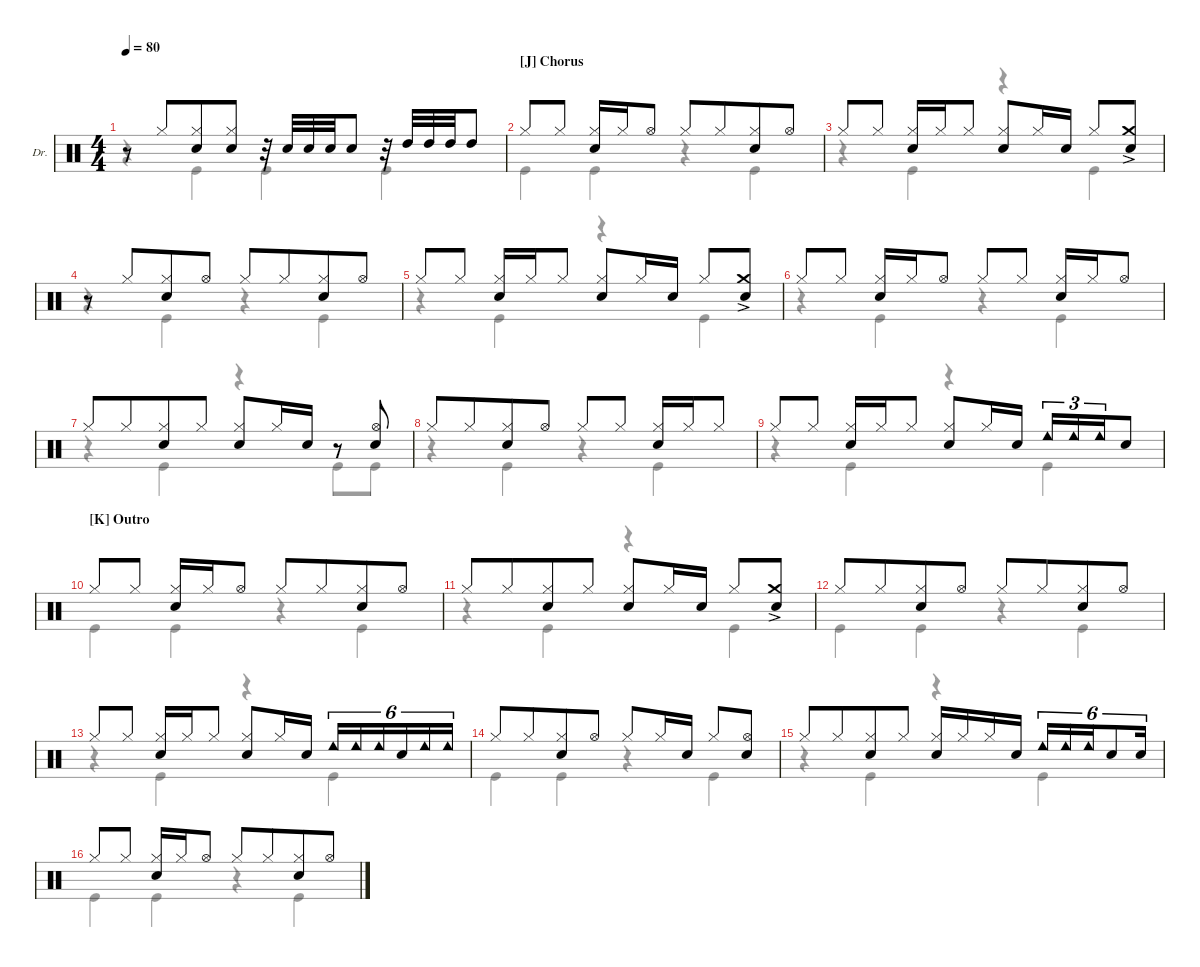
\defaultSystemsLayout 4
\hideDynamics
\bracketExtendMode groupsimilarinstruments
\firstSystemTrackNameOrientation horizontal
\otherSystemsTrackNameOrientation horizontal
\track ("Drums" "Dr.") {multiBarRest instrument percussion}
\staff {score}
\articulation defaults
\voice
\ts (4 4)
\tempo 80
\clef neutral
\ks c
r.8{dy mf} "Hi-Hat (closed)".8{beam merge} ("Hi-Hat (closed)" "Snare (hit) 2").8 ("Hi-Hat (closed)" "Snare (hit) 2").8 r.32 "Snare (hit) 2".32 "Snare (hit) 2".32 "Snare (hit) 2".32 "Snare (hit) 2".8 r.32 "High Tom (hit)".32 "High Tom (hit)".32 "High Tom (hit)".32 "High Tom (hit)".8 |
\section ("J" "Chorus")
"Hi-Hat (closed)".8 "Hi-Hat (closed)".8 ("Hi-Hat (closed)" "Snare (hit) 2").16 "Hi-Hat (closed)".16 "Hi-Hat (open)".8 "Hi-Hat (closed)".8 "Hi-Hat (closed)".8{beam merge} ("Hi-Hat (closed)" "Snare (hit) 2").8 "Hi-Hat (open)".8 |
"Hi-Hat (closed)".8 "Hi-Hat (closed)".8 ("Hi-Hat (closed)" "Snare (hit) 2").16 "Hi-Hat (closed)".16 "Hi-Hat (closed)".8 ("Hi-Hat (closed)" "Snare (hit) 2").8 "Hi-Hat (closed)".16 "Snare (hit) 2".16 "Hi-Hat (closed)".8 ("Crash medium (hit)"{ac} "Snare (hit) 2").8 |
r.8 "Hi-Hat (closed)".8{beam merge} ("Hi-Hat (closed)" "Snare (hit) 2").8 "Hi-Hat (open)".8 "Hi-Hat (closed)".8 "Hi-Hat (closed)".8{beam merge} ("Hi-Hat (closed)" "Snare (hit) 2").8 "Hi-Hat (open)".8 |
"Hi-Hat (closed)".8 "Hi-Hat (closed)".8 ("Hi-Hat (closed)" "Snare (hit) 2").16 "Hi-Hat (closed)".16 "Hi-Hat (closed)".8 ("Hi-Hat (closed)" "Snare (hit) 2").8 "Hi-Hat (closed)".16 "Snare (hit) 2".16 "Hi-Hat (closed)".8 ("Crash medium (hit)"{ac} "Snare (hit) 2").8 |
"Hi-Hat (closed)".8 "Hi-Hat (closed)".8 ("Hi-Hat (closed)" "Snare (hit) 2").16 "Hi-Hat (closed)".16 "Hi-Hat (open)".8 "Hi-Hat (closed)".8 "Hi-Hat (closed)".8 ("Hi-Hat (closed)" "Snare (hit) 2").16 "Hi-Hat (closed)".16 "Hi-Hat (open)".8 |
"Hi-Hat (closed)".8 "Hi-Hat (closed)".8{beam merge} ("Hi-Hat (closed)" "Snare (hit) 2").8 "Hi-Hat (closed)".8 ("Hi-Hat (closed)" "Snare (hit) 2").8 "Hi-Hat (closed)".16 "Snare (hit) 2".16 r.8 ("Hi-Hat (open)" "Snare (hit) 2").8 |
"Hi-Hat (closed)".8 "Hi-Hat (closed)".8{beam merge} ("Hi-Hat (closed)" "Snare (hit) 2").8 "Hi-Hat (open)".8 "Hi-Hat (closed)".8 "Hi-Hat (closed)".8 ("Hi-Hat (closed)" "Snare (hit) 2").16 "Hi-Hat (closed)".16 "Hi-Hat (closed)".8 |
"Hi-Hat (closed)".8 "Hi-Hat (closed)".8 ("Hi-Hat (closed)" "Snare (hit) 2").16 "Hi-Hat (closed)".16 "Hi-Hat (closed)".8 ("Hi-Hat (closed)" "Snare (hit) 2").8 "Hi-Hat (closed)".16 "Snare (hit) 2".16 "Cowbell low (hit)".16{tu (3 2)} "Cowbell low (hit)".16{tu (3 2)} "Cowbell low (hit)".16{tu (3 2) beam merge} "Snare (hit) 2".8 |
\section ("K" "Outro")
"Hi-Hat (closed)".8 "Hi-Hat (closed)".8 ("Hi-Hat (closed)" "Snare (hit) 2").16 "Hi-Hat (closed)".16 "Hi-Hat (open)".8 "Hi-Hat (closed)".8 "Hi-Hat (closed)".8{beam merge} ("Hi-Hat (closed)" "Snare (hit) 2").8 "Hi-Hat (open)".8 |
"Hi-Hat (closed)".8 "Hi-Hat (closed)".8{beam merge} ("Hi-Hat (closed)" "Snare (hit) 2").8 "Hi-Hat (closed)".8 ("Hi-Hat (closed)" "Snare (hit) 2").8 "Hi-Hat (closed)".16 "Snare (hit) 2".16 "Hi-Hat (closed)".8 ("Crash medium (hit)"{ac} "Snare (hit) 2").8 |
"Hi-Hat (closed)".8 "Hi-Hat (closed)".8{beam merge} ("Hi-Hat (closed)" "Snare (hit) 2").8 "Hi-Hat (open)".8 "Hi-Hat (closed)".8 "Hi-Hat (closed)".8{beam merge} ("Hi-Hat (closed)" "Snare (hit) 2").8 "Hi-Hat (open)".8 |
"Hi-Hat (closed)".8 "Hi-Hat (closed)".8 ("Hi-Hat (closed)" "Snare (hit) 2").16 "Hi-Hat (closed)".16 "Hi-Hat (closed)".8 ("Hi-Hat (closed)" "Snare (hit) 2").8 "Hi-Hat (closed)".16 "Snare (hit) 2".16 "Cowbell low (hit)".16{tu (6 4)} "Cowbell low (hit)".16{tu (6 4)} "Cowbell low (hit)".16{tu (6 4)} "Snare (hit) 2".16{tu (6 4)} "Cowbell low (hit)".16{tu (6 4)} "Cowbell low (hit)".16{tu (6 4)} |
"Hi-Hat (closed)".8 "Hi-Hat (closed)".8{beam merge} ("Hi-Hat (closed)" "Snare (hit) 2").8 "Hi-Hat (open)".8 "Hi-Hat (closed)".8 "Hi-Hat (closed)".16 "Snare (hit) 2".16 "Hi-Hat (closed)".8 ("Hi-Hat (open)" "Snare (hit) 2").8 |
"Hi-Hat (closed)".8 "Hi-Hat (closed)".8{beam merge} ("Hi-Hat (closed)" "Snare (hit) 2").8 "Hi-Hat (closed)".8 ("Hi-Hat (closed)" "Snare (hit) 2").16 "Hi-Hat (closed)".16 "Hi-Hat (closed)".16 "Snare (hit) 2".16 "Cowbell low (hit)".16{tu (6 4)} "Cowbell low (hit)".16{tu (6 4)} "Cowbell low (hit)".16{tu (6 4)} "Snare (hit) 2".8{tu (6 4)} "Snare (hit) 2".16{tu (6 4)} |
"Hi-Hat (closed)".8 "Hi-Hat (closed)".8 ("Hi-Hat (closed)" "Snare (hit) 2").16 "Hi-Hat (closed)".16 "Hi-Hat (open)".8 "Hi-Hat (closed)".8 "Hi-Hat (closed)".8{beam merge} ("Hi-Hat (closed)" "Snare (hit) 2").8{beam merge} "Hi-Hat (open)".8
\voice
\clef neutral
\ottava regular
\simile none
\ks c
r.4{dy mf} "Kick (hit)".4 "Kick (hit)".4 "Kick (hit)".4 |
"Kick (hit)".4 "Kick (hit)".4 r.4 "Kick (hit)".4 |
r.4 "Kick (hit)".4 r.4 "Kick (hit)".4 |
r.4 "Kick (hit)".4 r.4 "Kick (hit)".4 |
r.4 "Kick (hit)".4 r.4 "Kick (hit)".4 |
r.4 "Kick (hit)".4 r.4 "Kick (hit)".4 |
r.4 "Kick (hit)".4 r.4 "Kick (hit)".8 "Kick (hit)".8 |
r.4 "Kick (hit)".4 r.4 "Kick (hit)".4 |
r.4 "Kick (hit)".4 r.4 "Kick (hit)".4 |
"Kick (hit)".4 "Kick (hit)".4 r.4 "Kick (hit)".4 |
r.4 "Kick (hit)".4 r.4 "Kick (hit)".4 |
"Kick (hit)".4 "Kick (hit)".4 r.4 "Kick (hit)".4 |
r.4 "Kick (hit)".4 r.4 "Kick (hit)".4 |
"Kick (hit)".4 "Kick (hit)".4 r.4 "Kick (hit)".4 |
r.4 "Kick (hit)".4 r.4 "Kick (hit)".4 |
"Kick (hit)".4 "Kick (hit)".4 r.4 "Kick (hit)".4
